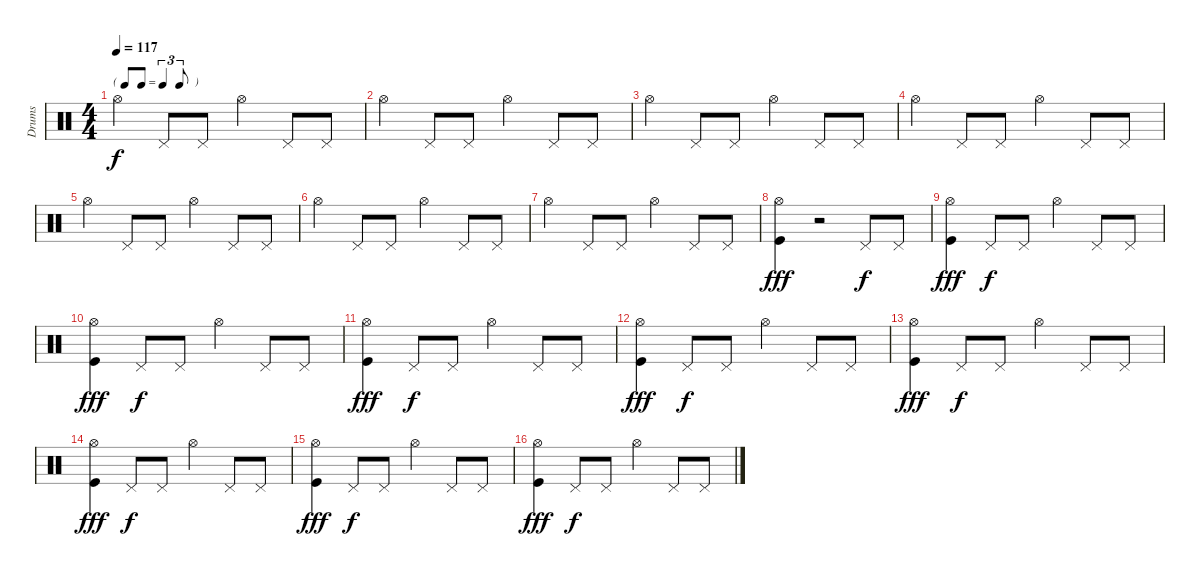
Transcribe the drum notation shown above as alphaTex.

\track ("Drums" "Drums") {instrument percussion}
\staff {score}
\articulation defaults
\ts (4 4)
\tf triplet8th
\tempo 117
\clef neutral
\ks c "Hi-Hat (open)".4{dy f} "Pedal Hi-Hat (hit)".8 "Pedal Hi-Hat (hit)".8 "Hi-Hat (open)".4 "Pedal Hi-Hat (hit)".8 "Pedal Hi-Hat (hit)".8
|
"Hi-Hat (open)".4 "Pedal Hi-Hat (hit)".8 "Pedal Hi-Hat (hit)".8 "Hi-Hat (open)".4 "Pedal Hi-Hat (hit)".8 "Pedal Hi-Hat (hit)".8 |
"Hi-Hat (open)".4 "Pedal Hi-Hat (hit)".8 "Pedal Hi-Hat (hit)".8 "Hi-Hat (open)".4 "Pedal Hi-Hat (hit)".8 "Pedal Hi-Hat (hit)".8 |
"Hi-Hat (open)".4 "Pedal Hi-Hat (hit)".8 "Pedal Hi-Hat (hit)".8 "Hi-Hat (open)".4 "Pedal Hi-Hat (hit)".8 "Pedal Hi-Hat (hit)".8 |
"Hi-Hat (open)".4 "Pedal Hi-Hat (hit)".8 "Pedal Hi-Hat (hit)".8 "Hi-Hat (open)".4 "Pedal Hi-Hat (hit)".8 "Pedal Hi-Hat (hit)".8 |
"Hi-Hat (open)".4 "Pedal Hi-Hat (hit)".8 "Pedal Hi-Hat (hit)".8 "Hi-Hat (open)".4 "Pedal Hi-Hat (hit)".8 "Pedal Hi-Hat (hit)".8 |
"Hi-Hat (open)".4 "Pedal Hi-Hat (hit)".8 "Pedal Hi-Hat (hit)".8 "Hi-Hat (open)".4 "Pedal Hi-Hat (hit)".8 "Pedal Hi-Hat (hit)".8 |
("Hi-Hat (open)" "Kick (hit)").4{dy fff} r.2 "Pedal Hi-Hat (hit)".8{dy f} "Pedal Hi-Hat (hit)".8 |
("Hi-Hat (open)" "Kick (hit)").4{dy fff} "Pedal Hi-Hat (hit)".8{dy f} "Pedal Hi-Hat (hit)".8 "Hi-Hat (open)".4 "Pedal Hi-Hat (hit)".8 "Pedal Hi-Hat (hit)".8 |
("Hi-Hat (open)" "Kick (hit)").4{dy fff} "Pedal Hi-Hat (hit)".8{dy f} "Pedal Hi-Hat (hit)".8 "Hi-Hat (open)".4 "Pedal Hi-Hat (hit)".8 "Pedal Hi-Hat (hit)".8 |
("Hi-Hat (open)" "Kick (hit)").4{dy fff} "Pedal Hi-Hat (hit)".8{dy f} "Pedal Hi-Hat (hit)".8 "Hi-Hat (open)".4 "Pedal Hi-Hat (hit)".8 "Pedal Hi-Hat (hit)".8 |
("Hi-Hat (open)" "Kick (hit)").4{dy fff} "Pedal Hi-Hat (hit)".8{dy f} "Pedal Hi-Hat (hit)".8 "Hi-Hat (open)".4 "Pedal Hi-Hat (hit)".8 "Pedal Hi-Hat (hit)".8 |
("Hi-Hat (open)" "Kick (hit)").4{dy fff} "Pedal Hi-Hat (hit)".8{dy f} "Pedal Hi-Hat (hit)".8 "Hi-Hat (open)".4 "Pedal Hi-Hat (hit)".8 "Pedal Hi-Hat (hit)".8 |
("Hi-Hat (open)" "Kick (hit)").4{dy fff} "Pedal Hi-Hat (hit)".8{dy f} "Pedal Hi-Hat (hit)".8 "Hi-Hat (open)".4 "Pedal Hi-Hat (hit)".8 "Pedal Hi-Hat (hit)".8 |
("Hi-Hat (open)" "Kick (hit)").4{dy fff} "Pedal Hi-Hat (hit)".8{dy f} "Pedal Hi-Hat (hit)".8 "Hi-Hat (open)".4 "Pedal Hi-Hat (hit)".8 "Pedal Hi-Hat (hit)".8 |
("Hi-Hat (open)" "Kick (hit)").4{dy fff} "Pedal Hi-Hat (hit)".8{dy f} "Pedal Hi-Hat (hit)".8 "Hi-Hat (open)".4 "Pedal Hi-Hat (hit)".8 "Pedal Hi-Hat (hit)".8
